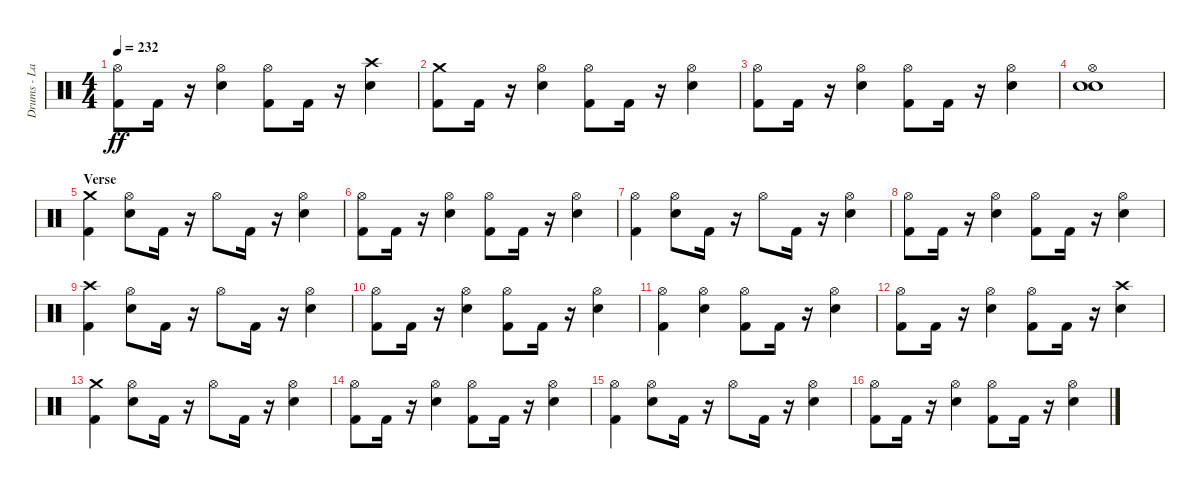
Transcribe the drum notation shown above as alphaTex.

\track ("Drums - Larzon" "Drums - La") {instrument percussion}
\staff {score}
\articulation defaults
\ts (4 4)
\tempo 232
\clef neutral
\ks c
("Kick (hit) 2" "Hi-Hat (open)").8{dy ff} "Kick (hit) 2".16 r.16 ("Electric Snare (hit)" "Hi-Hat (open)").4 ("Kick (hit) 2" "Hi-Hat (open)").8 "Kick (hit) 2".16 r.16 ("Electric Snare (hit)" "Crash high (hit)").4 |
("Kick (hit) 2" "Crash medium (hit)").8 "Kick (hit) 2".16 r.16 ("Electric Snare (hit)" "Hi-Hat (open)").4 ("Kick (hit) 2" "Hi-Hat (open)").8 "Kick (hit) 2".16 r.16 ("Electric Snare (hit)" "Hi-Hat (open)").4 |
("Kick (hit) 2" "Hi-Hat (open)").8 "Kick (hit) 2".16 r.16 ("Electric Snare (hit)" "Hi-Hat (open)").4 ("Kick (hit) 2" "Hi-Hat (open)").8 "Kick (hit) 2".16 r.16 ("Electric Snare (hit)" "Hi-Hat (open)").4 |
("Electric Snare (hit)" "Hi-Hat (open)" "Electric Snare (hit)").1 |
\section ("" "Verse")
("Crash medium (hit)" "Kick (hit) 2").4 ("Hi-Hat (open)" "Electric Snare (hit)").8 "Kick (hit) 2".16 r.16 "Hi-Hat (open)".8 "Kick (hit) 2".16 r.16 ("Electric Snare (hit)" "Hi-Hat (open)").4 |
("Kick (hit) 2" "Hi-Hat (open)").8 "Kick (hit) 2".16 r.16 ("Electric Snare (hit)" "Hi-Hat (open)").4 ("Kick (hit) 2" "Hi-Hat (open)").8 "Kick (hit) 2".16 r.16 ("Electric Snare (hit)" "Hi-Hat (open)").4 |
("Kick (hit) 2" "Hi-Hat (open)").4 ("Hi-Hat (open)" "Electric Snare (hit)").8 "Kick (hit) 2".16 r.16 "Hi-Hat (open)".8 "Kick (hit) 2".16 r.16 ("Electric Snare (hit)" "Hi-Hat (open)").4 |
("Kick (hit) 2" "Hi-Hat (open)").8 "Kick (hit) 2".16 r.16 ("Electric Snare (hit)" "Hi-Hat (open)").4 ("Kick (hit) 2" "Hi-Hat (open)").8 "Kick (hit) 2".16 r.16 ("Electric Snare (hit)" "Hi-Hat (open)").4 |
("Kick (hit) 2" "Crash high (hit)").4 ("Hi-Hat (open)" "Electric Snare (hit)").8 "Kick (hit) 2".16 r.16 "Hi-Hat (open)".8 "Kick (hit) 2".16 r.16 ("Electric Snare (hit)" "Hi-Hat (open)").4 |
("Kick (hit) 2" "Hi-Hat (open)").8 "Kick (hit) 2".16 r.16 ("Electric Snare (hit)" "Hi-Hat (open)").4 ("Kick (hit) 2" "Hi-Hat (open)").8 "Kick (hit) 2".16 r.16 ("Electric Snare (hit)" "Hi-Hat (open)").4 |
("Kick (hit) 2" "Hi-Hat (open)").4 ("Hi-Hat (open)" "Electric Snare (hit)").4 ("Hi-Hat (open)" "Kick (hit) 2").8 "Kick (hit) 2".16 r.16 ("Electric Snare (hit)" "Hi-Hat (open)").4 |
("Kick (hit) 2" "Hi-Hat (open)").8 "Kick (hit) 2".16 r.16 ("Electric Snare (hit)" "Hi-Hat (open)").4 ("Kick (hit) 2" "Hi-Hat (open)").8 "Kick (hit) 2".16 r.16 ("Crash high (hit)" "Electric Snare (hit)").4 |
("Crash medium (hit)" "Kick (hit) 2").4 ("Hi-Hat (open)" "Electric Snare (hit)").8 "Kick (hit) 2".16 r.16 "Hi-Hat (open)".8 "Kick (hit) 2".16 r.16 ("Electric Snare (hit)" "Hi-Hat (open)").4 |
("Kick (hit) 2" "Hi-Hat (open)").8 "Kick (hit) 2".16 r.16 ("Electric Snare (hit)" "Hi-Hat (open)").4 ("Kick (hit) 2" "Hi-Hat (open)").8 "Kick (hit) 2".16 r.16 ("Electric Snare (hit)" "Hi-Hat (open)").4 |
("Kick (hit) 2" "Hi-Hat (open)").4 ("Hi-Hat (open)" "Electric Snare (hit)").8 "Kick (hit) 2".16 r.16 "Hi-Hat (open)".8 "Kick (hit) 2".16 r.16 ("Electric Snare (hit)" "Hi-Hat (open)").4 |
("Kick (hit) 2" "Hi-Hat (open)").8 "Kick (hit) 2".16 r.16 ("Electric Snare (hit)" "Hi-Hat (open)").4 ("Kick (hit) 2" "Hi-Hat (open)").8 "Kick (hit) 2".16 r.16 ("Electric Snare (hit)" "Hi-Hat (open)").4
